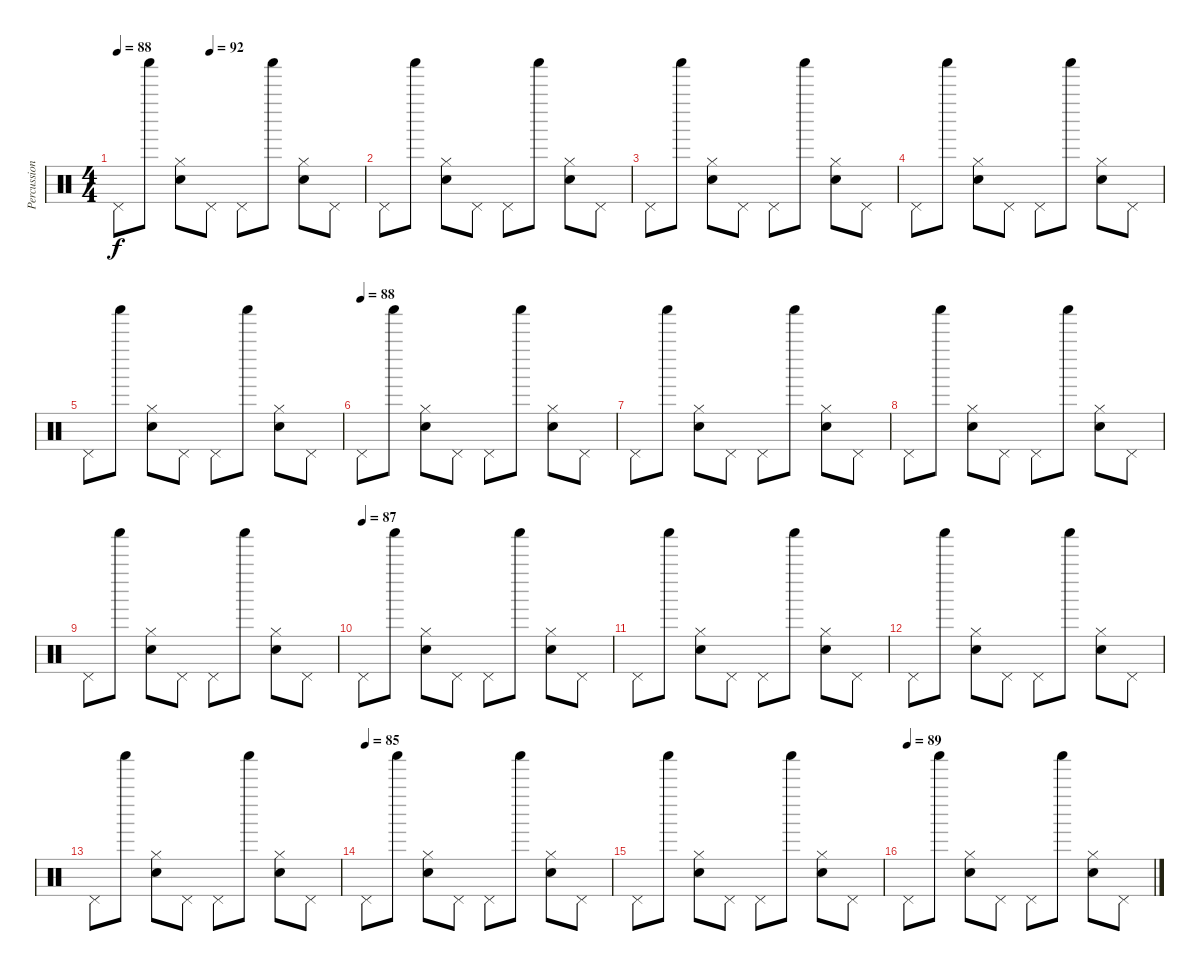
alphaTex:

\track ("Percussion" "Percussion") {instrument percussion}
\staff {score}
\articulation defaults
\ts (4 4)
\tempo 88
\tempo (92 0.375)
\clef neutral
\ks c "Pedal Hi-Hat (hit)".8{dy f} "Shaker (hit)".8
("Hi-Hat (closed)" "Electric Snare (hit)").8 "Pedal Hi-Hat (hit)".8 "Pedal Hi-Hat (hit)".8 "Shaker (hit)".8 ("Hi-Hat (closed)" "Electric Snare (hit)").8 "Pedal Hi-Hat (hit)".8 |
"Pedal Hi-Hat (hit)".8 "Shaker (hit)".8 ("Hi-Hat (closed)" "Electric Snare (hit)").8 "Pedal Hi-Hat (hit)".8 "Pedal Hi-Hat (hit)".8 "Shaker (hit)".8 ("Hi-Hat (closed)" "Electric Snare (hit)").8 "Pedal Hi-Hat (hit)".8 |
"Pedal Hi-Hat (hit)".8 "Shaker (hit)".8 ("Hi-Hat (closed)" "Electric Snare (hit)").8 "Pedal Hi-Hat (hit)".8 "Pedal Hi-Hat (hit)".8 "Shaker (hit)".8 ("Hi-Hat (closed)" "Electric Snare (hit)").8 "Pedal Hi-Hat (hit)".8 |
"Pedal Hi-Hat (hit)".8 "Shaker (hit)".8 ("Hi-Hat (closed)" "Electric Snare (hit)").8 "Pedal Hi-Hat (hit)".8 "Pedal Hi-Hat (hit)".8 "Shaker (hit)".8 ("Hi-Hat (closed)" "Electric Snare (hit)").8 "Pedal Hi-Hat (hit)".8 |
"Pedal Hi-Hat (hit)".8 "Shaker (hit)".8 ("Hi-Hat (closed)" "Electric Snare (hit)").8 "Pedal Hi-Hat (hit)".8 "Pedal Hi-Hat (hit)".8 "Shaker (hit)".8 ("Hi-Hat (closed)" "Electric Snare (hit)").8 "Pedal Hi-Hat (hit)".8 |
\tempo (88)
"Pedal Hi-Hat (hit)".8 "Shaker (hit)".8 ("Hi-Hat (closed)" "Electric Snare (hit)").8 "Pedal Hi-Hat (hit)".8 "Pedal Hi-Hat (hit)".8 "Shaker (hit)".8 ("Hi-Hat (closed)" "Electric Snare (hit)").8 "Pedal Hi-Hat (hit)".8 |
"Pedal Hi-Hat (hit)".8 "Shaker (hit)".8 ("Hi-Hat (closed)" "Electric Snare (hit)").8 "Pedal Hi-Hat (hit)".8 "Pedal Hi-Hat (hit)".8 "Shaker (hit)".8 ("Hi-Hat (closed)" "Electric Snare (hit)").8 "Pedal Hi-Hat (hit)".8 |
"Pedal Hi-Hat (hit)".8 "Shaker (hit)".8 ("Hi-Hat (closed)" "Electric Snare (hit)").8 "Pedal Hi-Hat (hit)".8 "Pedal Hi-Hat (hit)".8 "Shaker (hit)".8 ("Hi-Hat (closed)" "Electric Snare (hit)").8 "Pedal Hi-Hat (hit)".8 |
"Pedal Hi-Hat (hit)".8 "Shaker (hit)".8 ("Hi-Hat (closed)" "Electric Snare (hit)").8 "Pedal Hi-Hat (hit)".8 "Pedal Hi-Hat (hit)".8 "Shaker (hit)".8 ("Hi-Hat (closed)" "Electric Snare (hit)").8 "Pedal Hi-Hat (hit)".8 |
\tempo (87)
"Pedal Hi-Hat (hit)".8 "Shaker (hit)".8 ("Hi-Hat (closed)" "Electric Snare (hit)").8 "Pedal Hi-Hat (hit)".8 "Pedal Hi-Hat (hit)".8 "Shaker (hit)".8 ("Hi-Hat (closed)" "Electric Snare (hit)").8 "Pedal Hi-Hat (hit)".8 |
"Pedal Hi-Hat (hit)".8 "Shaker (hit)".8 ("Hi-Hat (closed)" "Electric Snare (hit)").8 "Pedal Hi-Hat (hit)".8 "Pedal Hi-Hat (hit)".8 "Shaker (hit)".8 ("Hi-Hat (closed)" "Electric Snare (hit)").8 "Pedal Hi-Hat (hit)".8 |
"Pedal Hi-Hat (hit)".8 "Shaker (hit)".8 ("Hi-Hat (closed)" "Electric Snare (hit)").8 "Pedal Hi-Hat (hit)".8 "Pedal Hi-Hat (hit)".8 "Shaker (hit)".8 ("Hi-Hat (closed)" "Electric Snare (hit)").8 "Pedal Hi-Hat (hit)".8 |
"Pedal Hi-Hat (hit)".8 "Shaker (hit)".8 ("Hi-Hat (closed)" "Electric Snare (hit)").8 "Pedal Hi-Hat (hit)".8 "Pedal Hi-Hat (hit)".8 "Shaker (hit)".8 ("Hi-Hat (closed)" "Electric Snare (hit)").8 "Pedal Hi-Hat (hit)".8 |
\tempo (85)
"Pedal Hi-Hat (hit)".8 "Shaker (hit)".8 ("Hi-Hat (closed)" "Electric Snare (hit)").8 "Pedal Hi-Hat (hit)".8 "Pedal Hi-Hat (hit)".8 "Shaker (hit)".8 ("Hi-Hat (closed)" "Electric Snare (hit)").8 "Pedal Hi-Hat (hit)".8 |
"Pedal Hi-Hat (hit)".8 "Shaker (hit)".8 ("Hi-Hat (closed)" "Electric Snare (hit)").8 "Pedal Hi-Hat (hit)".8 "Pedal Hi-Hat (hit)".8 "Shaker (hit)".8 ("Hi-Hat (closed)" "Electric Snare (hit)").8 "Pedal Hi-Hat (hit)".8 |
\tempo (89)
"Pedal Hi-Hat (hit)".8 "Shaker (hit)".8 ("Hi-Hat (closed)" "Electric Snare (hit)").8 "Pedal Hi-Hat (hit)".8 "Pedal Hi-Hat (hit)".8 "Shaker (hit)".8 ("Hi-Hat (closed)" "Electric Snare (hit)").8 "Pedal Hi-Hat (hit)".8
